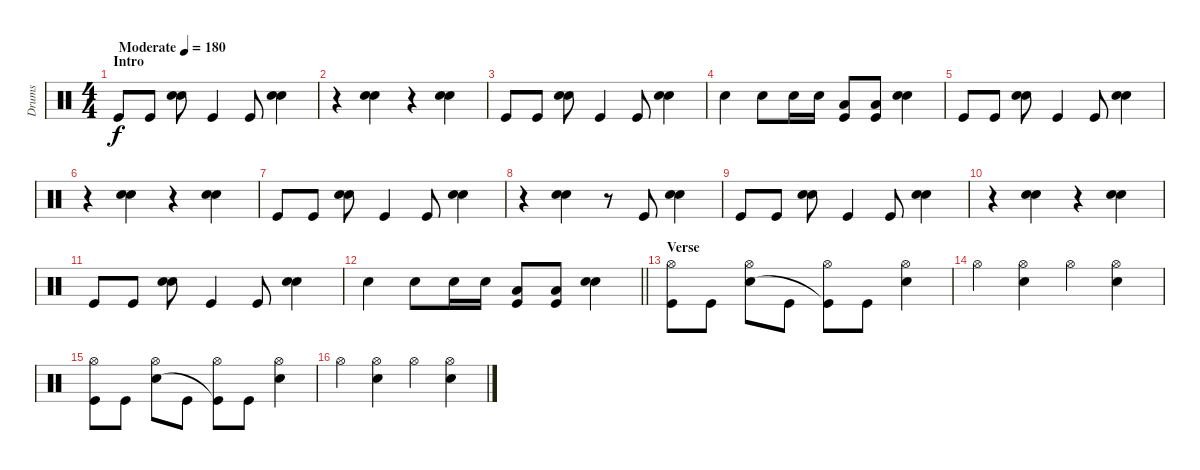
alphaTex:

\track ("Drums" "Drums") {instrument percussion}
\staff {score}
\articulation defaults
\ts (4 4)
\section ("" "Intro")
\tempo (180 "Moderate")
\clef neutral
\ks c "Kick (hit)".8{dy f} "Kick (hit)".8
("Snare (hit) 2" "Electric Snare (hit)").8 "Kick (hit)".4 "Kick (hit)".8 ("Snare (hit) 2" "Electric Snare (hit)").4 |
r.4 ("Snare (hit) 2" "Electric Snare (hit)").4 r.4 ("Snare (hit) 2" "Electric Snare (hit)").4 |
"Kick (hit)".8 "Kick (hit)".8 ("Snare (hit) 2" "Electric Snare (hit)").8 "Kick (hit)".4 "Kick (hit)".8 ("Snare (hit) 2" "Electric Snare (hit)").4 |
"Electric Snare (hit)".4 "Snare (hit) 2".8 "Snare (hit) 2".16 "Snare (hit) 2".16 ("Low Tom (hit)" "Kick (hit)").8 ("Low Tom (hit)" "Kick (hit)").8 ("Snare (hit) 2" "Electric Snare (hit)").4 |
"Kick (hit)".8 "Kick (hit)".8 ("Snare (hit) 2" "Electric Snare (hit)").8 "Kick (hit)".4 "Kick (hit)".8 ("Snare (hit) 2" "Electric Snare (hit)").4 |
r.4 ("Snare (hit) 2" "Electric Snare (hit)").4 r.4 ("Snare (hit) 2" "Electric Snare (hit)").4 |
"Kick (hit)".8 "Kick (hit)".8 ("Snare (hit) 2" "Electric Snare (hit)").8 "Kick (hit)".4 "Kick (hit)".8 ("Snare (hit) 2" "Electric Snare (hit)").4 |
r.4 ("Snare (hit) 2" "Electric Snare (hit)").4 r.8 "Kick (hit)".8 ("Snare (hit) 2" "Electric Snare (hit)").4 |
"Kick (hit)".8 "Kick (hit)".8 ("Snare (hit) 2" "Electric Snare (hit)").8 "Kick (hit)".4 "Kick (hit)".8 ("Snare (hit) 2" "Electric Snare (hit)").4 |
r.4 ("Snare (hit) 2" "Electric Snare (hit)").4 r.4 ("Snare (hit) 2" "Electric Snare (hit)").4 |
"Kick (hit)".8 "Kick (hit)".8 ("Snare (hit) 2" "Electric Snare (hit)").8 "Kick (hit)".4 "Kick (hit)".8 ("Snare (hit) 2" "Electric Snare (hit)").4 |
\barLineRight lightlight "Electric Snare (hit)".4 "Snare (hit) 2".8 "Snare (hit) 2".16 "Snare (hit) 2".16
("Low Tom (hit)" "Kick (hit)").8 ("Low Tom (hit)" "Kick (hit)").8 ("Snare (hit) 2" "Electric Snare (hit)").4 |
\section ("" "Verse")
("Hi-Hat (open)" "Kick (hit)").8 "Kick (hit)".8 ("Hi-Hat (open)" "Snare (hit) 2").8 "Kick (hit)".8 ("Hi-Hat (open)" "Kick (hit)"{t}).8 "Kick (hit)".8 ("Hi-Hat (open)" "Snare (hit) 2").4 |
"Hi-Hat (open)".4 ("Hi-Hat (open)" "Snare (hit) 2").4 "Hi-Hat (open)".4 ("Hi-Hat (open)" "Snare (hit) 2").4 |
("Hi-Hat (open)" "Kick (hit)").8 "Kick (hit)".8 ("Hi-Hat (open)" "Snare (hit) 2").8 "Kick (hit)".8 ("Hi-Hat (open)" "Kick (hit)"{t}).8 "Kick (hit)".8 ("Hi-Hat (open)" "Snare (hit) 2").4 |
"Hi-Hat (open)".4 ("Hi-Hat (open)" "Snare (hit) 2").4 "Hi-Hat (open)".4 ("Hi-Hat (open)" "Snare (hit) 2").4
